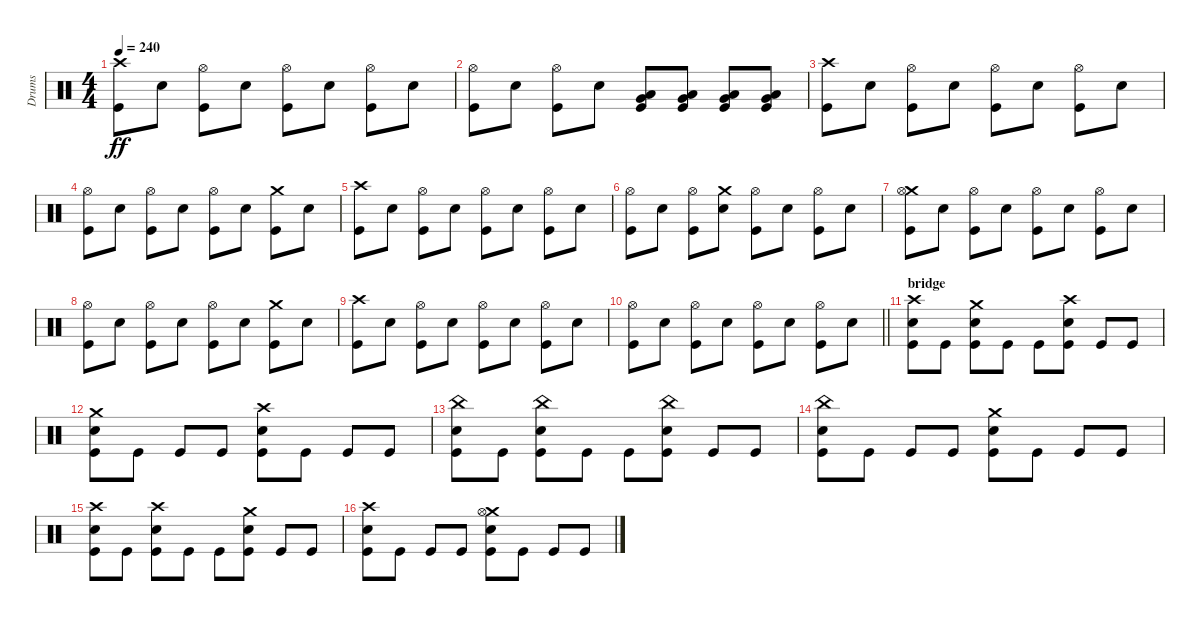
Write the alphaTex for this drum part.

\track ("Drums" "Drums") {instrument percussion}
\staff {score}
\articulation defaults
\ts (4 4)
\tempo 240
\clef neutral
\ks c
("Crash high (hit)" "Kick (hit)").8{dy ff} "Electric Snare (hit)".8 ("Hi-Hat (open)" "Kick (hit)").8 "Electric Snare (hit)".8 ("Hi-Hat (open)" "Kick (hit)").8 "Electric Snare (hit)".8 ("Hi-Hat (open)" "Kick (hit)").8 "Electric Snare (hit)".8 |
("Hi-Hat (open)" "Kick (hit)").8 "Electric Snare (hit)".8 ("Hi-Hat (open)" "Kick (hit)").8 "Electric Snare (hit)".8 ("Very Low Tom (hit)" "Low Floor Tom (hit)" "Kick (hit)").8 ("Very Low Tom (hit)" "Low Floor Tom (hit)" "Kick (hit)").8 ("Very Low Tom (hit)" "Low Floor Tom (hit)" "Kick (hit)").8 ("Very Low Tom (hit)" "Low Floor Tom (hit)" "Kick (hit)").8 |
("Crash high (hit)" "Kick (hit)").8 "Electric Snare (hit)".8 ("Hi-Hat (open)" "Kick (hit)").8 "Electric Snare (hit)".8 ("Hi-Hat (open)" "Kick (hit)").8 "Electric Snare (hit)".8 ("Hi-Hat (open)" "Kick (hit)").8 "Electric Snare (hit)".8 |
("Hi-Hat (open)" "Kick (hit)").8 "Electric Snare (hit)".8 ("Hi-Hat (open)" "Kick (hit)").8 "Electric Snare (hit)".8 ("Hi-Hat (open)" "Kick (hit)").8 "Electric Snare (hit)".8 ("Crash medium (hit)" "Kick (hit)").8 "Electric Snare (hit)".8 |
("Crash high (hit)" "Kick (hit)").8 "Electric Snare (hit)".8 ("Hi-Hat (open)" "Kick (hit)").8 "Electric Snare (hit)".8 ("Hi-Hat (open)" "Kick (hit)").8 "Electric Snare (hit)".8 ("Hi-Hat (open)" "Kick (hit)").8 "Electric Snare (hit)".8 |
("Hi-Hat (open)" "Kick (hit)").8 "Electric Snare (hit)".8 ("Hi-Hat (open)" "Kick (hit)").8 ("Crash medium (hit)" "Electric Snare (hit)").8 ("Hi-Hat (open)" "Kick (hit)").8 "Electric Snare (hit)".8 ("Hi-Hat (open)" "Kick (hit)").8 "Electric Snare (hit)".8 |
("Crash medium (hit)" "Hi-Hat (open)" "Kick (hit)").8 "Electric Snare (hit)".8 ("Hi-Hat (open)" "Kick (hit)").8 "Electric Snare (hit)".8 ("Hi-Hat (open)" "Kick (hit)").8 "Electric Snare (hit)".8 ("Hi-Hat (open)" "Kick (hit)").8 "Electric Snare (hit)".8 |
("Hi-Hat (open)" "Kick (hit)").8 "Electric Snare (hit)".8 ("Hi-Hat (open)" "Kick (hit)").8 "Electric Snare (hit)".8 ("Hi-Hat (open)" "Kick (hit)").8 "Electric Snare (hit)".8 ("Crash medium (hit)" "Kick (hit)").8 "Electric Snare (hit)".8 |
("Crash high (hit)" "Kick (hit)").8 "Electric Snare (hit)".8 ("Hi-Hat (open)" "Kick (hit)").8 "Electric Snare (hit)".8 ("Hi-Hat (open)" "Kick (hit)").8 "Electric Snare (hit)".8 ("Hi-Hat (open)" "Kick (hit)").8 "Electric Snare (hit)".8 |
\barLineRight lightlight
("Hi-Hat (open)" "Kick (hit)").8 "Electric Snare (hit)".8 ("Hi-Hat (open)" "Kick (hit)").8 "Electric Snare (hit)".8 ("Hi-Hat (open)" "Kick (hit)").8 "Electric Snare (hit)".8 ("Hi-Hat (open)" "Kick (hit)").8 "Electric Snare (hit)".8 |
\section ("" "bridge")
("Crash high (hit)" "Electric Snare (hit)" "Kick (hit)").8 "Kick (hit)".8 ("Crash medium (hit)" "Electric Snare (hit)" "Kick (hit)").8 "Kick (hit)".8 "Kick (hit)".8 ("Crash high (hit)" "Electric Snare (hit)" "Kick (hit)").8 "Kick (hit)".8 "Kick (hit)".8 |
("Crash medium (hit)" "Electric Snare (hit)" "Kick (hit)").8 "Kick (hit)".8 "Kick (hit)".8 "Kick (hit)".8 ("Crash high (hit)" "Electric Snare (hit)" "Kick (hit)").8 "Kick (hit)".8 "Kick (hit)".8 "Kick (hit)".8 |
("China (hit)" "Electric Snare (hit)" "Kick (hit)").8 "Kick (hit)".8 ("China (hit)" "Electric Snare (hit)" "Kick (hit)").8 "Kick (hit)".8 "Kick (hit)".8 ("China (hit)" "Electric Snare (hit)" "Kick (hit)").8 "Kick (hit)".8 "Kick (hit)".8 |
("China (hit)" "Electric Snare (hit)" "Kick (hit)").8 "Kick (hit)".8 "Kick (hit)".8 "Kick (hit)".8 ("Crash medium (hit)" "Electric Snare (hit)" "Kick (hit)").8 "Kick (hit)".8 "Kick (hit)".8 "Kick (hit)".8 |
("Crash high (hit)" "Electric Snare (hit)" "Kick (hit)").8 "Kick (hit)".8 ("Crash high (hit)" "Electric Snare (hit)" "Kick (hit)").8 "Kick (hit)".8 "Kick (hit)".8 ("Crash medium (hit)" "Electric Snare (hit)" "Kick (hit)").8 "Kick (hit)".8 "Kick (hit)".8 |
("Crash high (hit)" "Electric Snare (hit)" "Kick (hit)").8 "Kick (hit)".8 "Kick (hit)".8 "Kick (hit)".8 ("Crash medium (hit)" "Hi-Hat (open)" "Electric Snare (hit)" "Kick (hit)").8 "Kick (hit)".8 "Kick (hit)".8 "Kick (hit)".8
